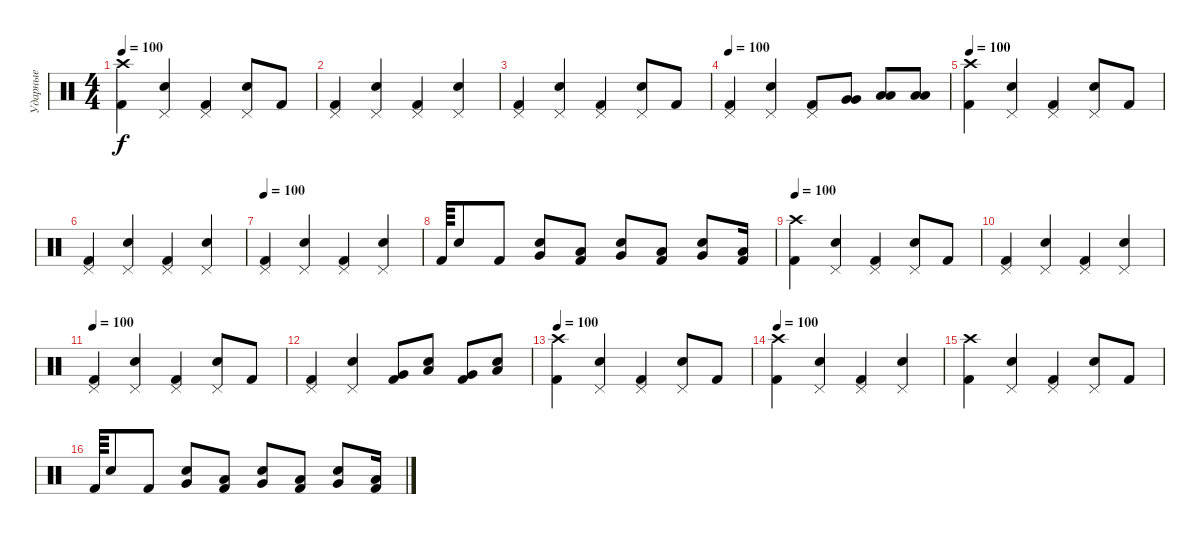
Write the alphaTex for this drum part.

\track ("Ударные" "Ударные") {instrument percussion}
\staff {score}
\articulation defaults
\ts (4 4)
\tempo 100
\clef neutral
\ks c
("Crash high (hit)" "Kick (hit) 2").4{dy f} ("Pedal Hi-Hat (hit)" "Electric Snare (hit)").4 ("Pedal Hi-Hat (hit)" "Kick (hit) 2").4 ("Pedal Hi-Hat (hit)" "Electric Snare (hit)").8 "Kick (hit) 2".8 |
("Pedal Hi-Hat (hit)" "Kick (hit) 2").4 ("Pedal Hi-Hat (hit)" "Electric Snare (hit)").4 ("Pedal Hi-Hat (hit)" "Kick (hit) 2").4 ("Pedal Hi-Hat (hit)" "Electric Snare (hit)").4 |
("Pedal Hi-Hat (hit)" "Kick (hit) 2").4 ("Pedal Hi-Hat (hit)" "Electric Snare (hit)").4 ("Pedal Hi-Hat (hit)" "Kick (hit) 2").4 ("Pedal Hi-Hat (hit)" "Electric Snare (hit)").8 "Kick (hit) 2".8 |
\tempo 100
("Pedal Hi-Hat (hit)" "Kick (hit) 2").4{volume 16} ("Pedal Hi-Hat (hit)" "Electric Snare (hit)").4 ("Pedal Hi-Hat (hit)" "Kick (hit) 2").8 ("Very Low Tom (hit)" "Very Low Tom (hit)").8 ("Low Tom (hit)" "Low Tom (hit)").8 ("Low Tom (hit)" "Low Tom (hit)").8 |
\tempo 100
("Crash high (hit)" "Kick (hit) 2").4 ("Pedal Hi-Hat (hit)" "Electric Snare (hit)").4 ("Pedal Hi-Hat (hit)" "Kick (hit) 2").4 ("Pedal Hi-Hat (hit)" "Electric Snare (hit)").8 "Kick (hit) 2".8 |
("Pedal Hi-Hat (hit)" "Kick (hit) 2").4 ("Pedal Hi-Hat (hit)" "Electric Snare (hit)").4 ("Pedal Hi-Hat (hit)" "Kick (hit) 2").4 ("Pedal Hi-Hat (hit)" "Electric Snare (hit)").4 |
\tempo 100
("Pedal Hi-Hat (hit)" "Kick (hit) 2").4 ("Pedal Hi-Hat (hit)" "Electric Snare (hit)").4 ("Pedal Hi-Hat (hit)" "Kick (hit) 2").4 ("Pedal Hi-Hat (hit)" "Electric Snare (hit)").4 |
"Kick (hit) 2".64 "Electric Snare (hit)".8 "Kick (hit) 2".8 ("Very Low Tom (hit)" "Electric Snare (hit)").8 ("Low Floor Tom (hit)" "Kick (hit) 2").8 ("Very Low Tom (hit)" "Electric Snare (hit)").8 ("Low Floor Tom (hit)" "Kick (hit) 2").8 ("Very Low Tom (hit)" "Electric Snare (hit)").8 ("Low Floor Tom (hit)" "Kick (hit) 2").16 |
\tempo 100
("Crash high (hit)" "Kick (hit) 2").4 ("Pedal Hi-Hat (hit)" "Electric Snare (hit)").4 ("Pedal Hi-Hat (hit)" "Kick (hit) 2").4 ("Pedal Hi-Hat (hit)" "Electric Snare (hit)").8 "Kick (hit) 2".8 |
("Pedal Hi-Hat (hit)" "Kick (hit) 2").4 ("Pedal Hi-Hat (hit)" "Electric Snare (hit)").4 ("Pedal Hi-Hat (hit)" "Kick (hit) 2").4 ("Pedal Hi-Hat (hit)" "Electric Snare (hit)").4 |
\tempo 100
("Pedal Hi-Hat (hit)" "Kick (hit) 2").4 ("Pedal Hi-Hat (hit)" "Electric Snare (hit)").4 ("Pedal Hi-Hat (hit)" "Kick (hit) 2").4 ("Pedal Hi-Hat (hit)" "Electric Snare (hit)").8 "Kick (hit) 2".8 |
("Pedal Hi-Hat (hit)" "Kick (hit) 2").4 ("Pedal Hi-Hat (hit)" "Electric Snare (hit)").4 ("Very Low Tom (hit)" "Kick (hit) 2").8 ("Low Floor Tom (hit)" "Electric Snare (hit)").8 ("Very Low Tom (hit)" "Kick (hit) 2").8 ("Low Floor Tom (hit)" "Electric Snare (hit)").8 |
\tempo 100
("Crash high (hit)" "Kick (hit) 2").4 ("Pedal Hi-Hat (hit)" "Electric Snare (hit)").4 ("Pedal Hi-Hat (hit)" "Kick (hit) 2").4 ("Pedal Hi-Hat (hit)" "Electric Snare (hit)").8 "Kick (hit) 2".8 |
\tempo 100
("Crash high (hit)" "Kick (hit) 2").4 ("Pedal Hi-Hat (hit)" "Electric Snare (hit)").4 ("Pedal Hi-Hat (hit)" "Kick (hit) 2").4 ("Pedal Hi-Hat (hit)" "Electric Snare (hit)").4 |
("Crash high (hit)" "Kick (hit) 2").4 ("Pedal Hi-Hat (hit)" "Electric Snare (hit)").4 ("Pedal Hi-Hat (hit)" "Kick (hit) 2").4 ("Pedal Hi-Hat (hit)" "Electric Snare (hit)").8 "Kick (hit) 2".8 |
"Kick (hit) 2".64 "Electric Snare (hit)".8 "Kick (hit) 2".8 ("Very Low Tom (hit)" "Electric Snare (hit)").8 ("Low Floor Tom (hit)" "Kick (hit) 2").8 ("Very Low Tom (hit)" "Electric Snare (hit)").8 ("Low Floor Tom (hit)" "Kick (hit) 2").8 ("Very Low Tom (hit)" "Electric Snare (hit)").8 ("Low Floor Tom (hit)" "Kick (hit) 2").16
